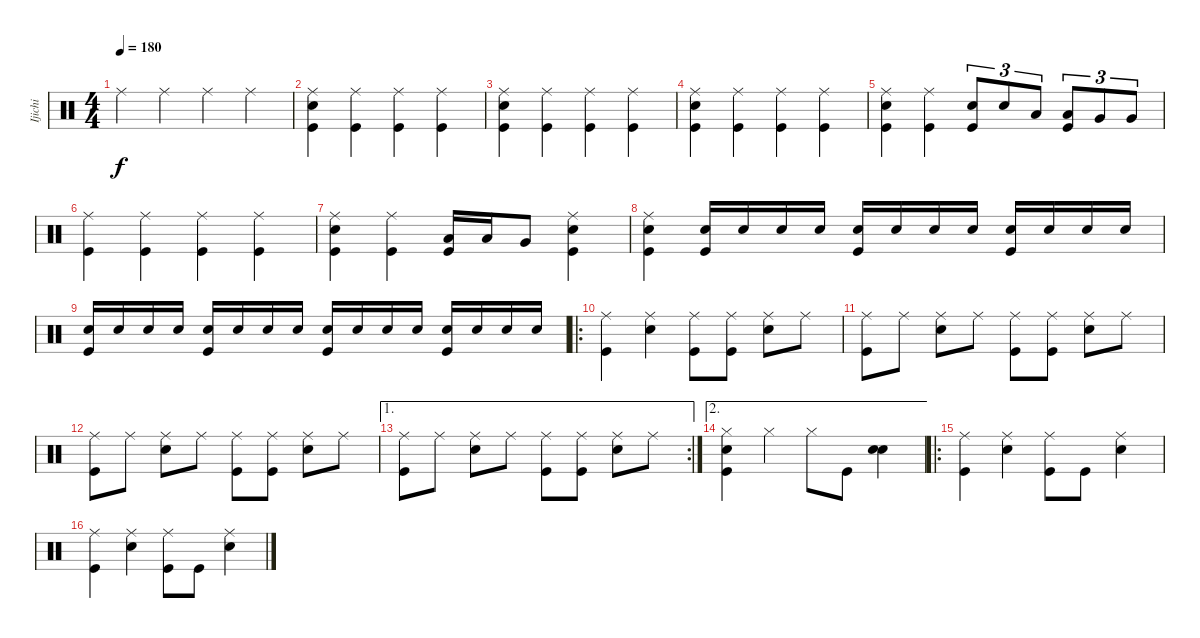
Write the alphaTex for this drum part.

\track ("Ijichi" "Ijichi") {instrument percussion}
\staff {score}
\articulation defaults
\ts (4 4)
\tempo 180
\clef neutral
\ks c "Ride (middle)".4{dy f} "Ride (middle)".4 "Ride (middle)".4 "Ride (middle)".4
|
("Ride (middle)" "Snare (hit) 2" "Kick (hit)").4 ("Ride (middle)" "Kick (hit)").4 ("Ride (middle)" "Kick (hit)").4 ("Ride (middle)" "Kick (hit)").4 |
("Ride (middle)" "Snare (hit) 2" "Kick (hit)").4 ("Ride (middle)" "Kick (hit)").4 ("Ride (middle)" "Kick (hit)").4 ("Ride (middle)" "Kick (hit)").4 |
("Ride (middle)" "Snare (hit) 2" "Kick (hit)").4 ("Ride (middle)" "Kick (hit)").4 ("Ride (middle)" "Kick (hit)").4 ("Ride (middle)" "Kick (hit)").4 |
("Ride (middle)" "Snare (hit) 2" "Kick (hit)").4 ("Ride (middle)" "Kick (hit)").4 ("Snare (hit) 2" "Kick (hit)").8{tu (3 2)} "Snare (hit) 2".8{tu (3 2)} "Low Tom (hit)".8{tu (3 2)} ("Low Tom (hit)" "Kick (hit)").8{tu (3 2)} "Very Low Tom (hit)".8{tu (3 2)} "Very Low Tom (hit)".8{tu (3 2)} |
("Ride (middle)" "Kick (hit)").4 ("Ride (middle)" "Kick (hit)").4 ("Ride (middle)" "Kick (hit)").4 ("Ride (middle)" "Kick (hit)").4 |
("Ride (middle)" "Kick (hit)" "Snare (hit) 2").4 ("Ride (middle)" "Kick (hit)").4 ("Low Tom (hit)" "Kick (hit)").16 "Low Tom (hit)".16 "Very Low Tom (hit)".8 ("Ride (middle)" "Snare (hit) 2" "Kick (hit)").4 |
("Ride (middle)" "Kick (hit)" "Snare (hit) 2").4 ("Snare (hit) 2" "Kick (hit)").16 "Snare (hit) 2".16 "Snare (hit) 2".16 "Snare (hit) 2".16 ("Snare (hit) 2" "Kick (hit)").16 "Snare (hit) 2".16 "Snare (hit) 2".16 "Snare (hit) 2".16 ("Snare (hit) 2" "Kick (hit)").16 "Snare (hit) 2".16 "Snare (hit) 2".16 "Snare (hit) 2".16 |
("Snare (hit) 2" "Kick (hit)").16 "Snare (hit) 2".16 "Snare (hit) 2".16 "Snare (hit) 2".16 ("Snare (hit) 2" "Kick (hit)").16 "Snare (hit) 2".16 "Snare (hit) 2".16 "Snare (hit) 2".16 ("Snare (hit) 2" "Kick (hit)").16 "Snare (hit) 2".16 "Snare (hit) 2".16 "Snare (hit) 2".16 ("Snare (hit) 2" "Kick (hit)").16 "Snare (hit) 2".16 "Snare (hit) 2".16 "Snare (hit) 2".16 |
\ro
("Ride (middle)" "Kick (hit)").4 ("Ride (middle)" "Snare (hit) 2").4 ("Ride (middle)" "Kick (hit)").8 ("Ride (middle)" "Kick (hit)").8 ("Ride (middle)" "Snare (hit) 2").8 "Ride (middle)".8 |
("Ride (middle)" "Kick (hit)").8 "Ride (middle)".8 ("Ride (middle)" "Snare (hit) 2").8 "Ride (middle)".8 ("Ride (middle)" "Kick (hit)").8 ("Ride (middle)" "Kick (hit)").8 ("Ride (middle)" "Snare (hit) 2").8 "Ride (middle)".8 |
("Ride (middle)" "Kick (hit)").8 "Ride (middle)".8 ("Ride (middle)" "Snare (hit) 2").8 "Ride (middle)".8 ("Ride (middle)" "Kick (hit)").8 ("Ride (middle)" "Kick (hit)").8 ("Ride (middle)" "Snare (hit) 2").8 "Ride (middle)".8 |
\ae 1
\rc 2
("Ride (middle)" "Kick (hit)").8 "Ride (middle)".8 ("Ride (middle)" "Snare (hit) 2").8 "Ride (middle)".8 ("Ride (middle)" "Kick (hit)").8 ("Ride (middle)" "Kick (hit)").8 ("Ride (middle)" "Snare (hit) 2").8 "Ride (middle)".8 |
\ae 2
("Hi-Hat (closed)" "Snare (hit) 2" "Kick (hit)").4 "Hi-Hat (closed)".4 "Hi-Hat (closed)".8 "Kick (hit)".8 ("Snare (hit) 2" "Snare (hit) 2").4 |
\ro
("Ride (middle)" "Kick (hit)").4 ("Ride (middle)" "Snare (hit) 2").4 ("Ride (middle)" "Kick (hit)").8 "Kick (hit)".8 ("Ride (middle)" "Snare (hit) 2").4 |
("Ride (middle)" "Kick (hit)").4 ("Ride (middle)" "Snare (hit) 2").4 ("Ride (middle)" "Kick (hit)").8 "Kick (hit)".8 ("Ride (middle)" "Snare (hit) 2").4
